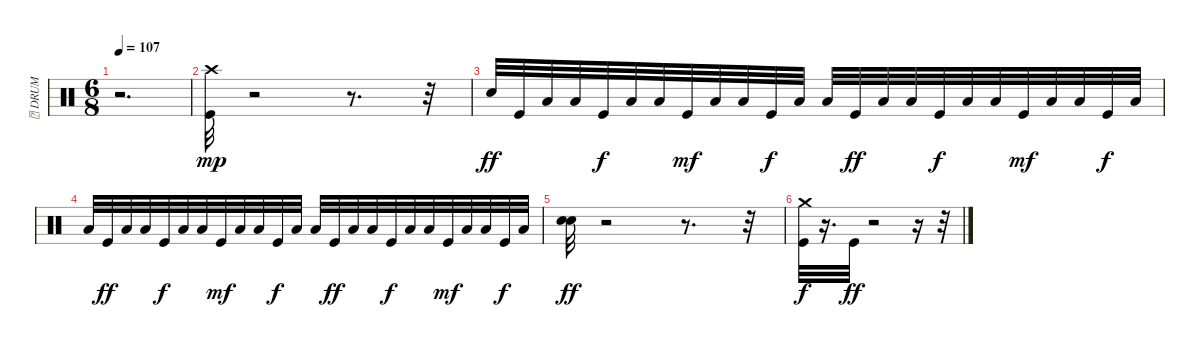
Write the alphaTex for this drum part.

\track ("\t DRUM" "\t DRUM") {instrument percussion}
\staff {score}
\articulation defaults
\ts (6 8)
\tempo 107
\clef neutral
\ks c
r.2{d dy mp} |
("Kick (hit)" "Crash high (hit)").32 r.2 r.8{d} r.32 |
"Electric Snare (hit)".32{dy ff} "Kick (hit)".32 "Low Floor Tom (hit)".32 "Low Tom (hit)".32 "Kick (hit)".32{dy f} "Low Floor Tom (hit)".32 "Low Tom (hit)".32 "Kick (hit)".32{dy mf} "Low Floor Tom (hit)".32 "Low Tom (hit)".32 "Kick (hit)".32{dy f} "Low Floor Tom (hit)".32 "Low Tom (hit)".32 "Kick (hit)".32{dy ff} "Low Floor Tom (hit)".32 "Low Tom (hit)".32 "Kick (hit)".32{dy f} "Low Floor Tom (hit)".32 "Low Tom (hit)".32 "Kick (hit)".32{dy mf} "Low Floor Tom (hit)".32 "Low Tom (hit)".32 "Kick (hit)".32{dy f} "Low Floor Tom (hit)".32 |
"Low Tom (hit)".32 "Kick (hit)".32{dy ff} "Low Floor Tom (hit)".32 "Low Tom (hit)".32 "Kick (hit)".32{dy f} "Low Floor Tom (hit)".32 "Low Tom (hit)".32 "Kick (hit)".32{dy mf} "Low Floor Tom (hit)".32 "Low Tom (hit)".32 "Kick (hit)".32{dy f} "Low Floor Tom (hit)".32 "Low Tom (hit)".32 "Kick (hit)".32{dy ff} "Low Floor Tom (hit)".32 "Low Tom (hit)".32 "Kick (hit)".32{dy f} "Low Floor Tom (hit)".32 "Low Tom (hit)".32 "Kick (hit)".32{dy mf} "Low Floor Tom (hit)".32 "Low Tom (hit)".32 "Kick (hit)".32{dy f} "Low Floor Tom (hit)".32 |
("Electric Snare (hit)" "Electric Snare (hit)").32{dy ff} r.2 r.8{d} r.32 |
("Kick (hit)" "Crash medium (hit)").32{dy f} r.16{d} "Kick (hit)".32{dy ff} r.2 r.16 r.32
